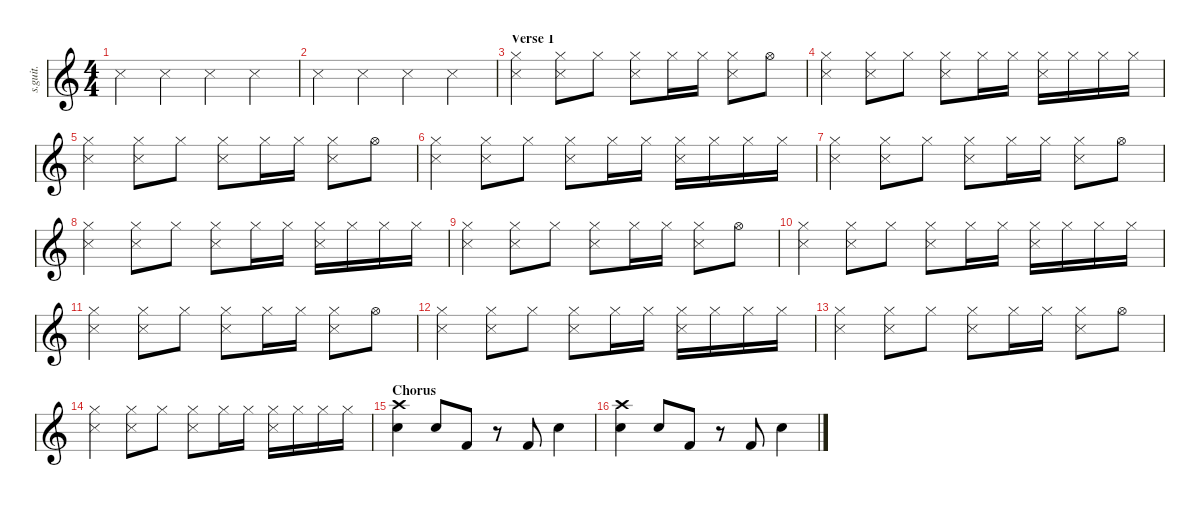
\defaultSystemsLayout 4
\hideDynamics
\bracketExtendMode nobrackets
\track ("Percussion" "s.guit.") {instrument percussion}
\staff {score}
\articulation defaults
\ts (4 4)
\tempo (102 hide)
\clef g2
\ks c "Snare (side stick) 3".4{dy f} "Snare (side stick) 3".4 "Snare (side stick) 3".4 "Snare (side stick) 3".4
|
"Snare (side stick) 3".4 "Snare (side stick) 3".4 "Snare (side stick) 3".4 "Snare (side stick) 3".4 |
\section ("" "Verse 1")
("Snare (side stick) 3" "Hi-Hat (closed)").4 ("Snare (side stick) 3" "Hi-Hat (closed)").8 "Hi-Hat (closed)".8 ("Snare (side stick) 3" "Hi-Hat (closed)").8 "Hi-Hat (closed)".16 "Hi-Hat (closed)".16 ("Snare (side stick) 3" "Hi-Hat (closed)").8 "Hi-Hat (open)".8 |
("Snare (side stick) 3" "Hi-Hat (closed)").4 ("Snare (side stick) 3" "Hi-Hat (closed)").8 "Hi-Hat (closed)".8 ("Snare (side stick) 3" "Hi-Hat (closed)").8 "Hi-Hat (closed)".16 "Hi-Hat (closed)".16 ("Snare (side stick) 3" "Hi-Hat (closed)").16 "Hi-Hat (closed)".16 "Hi-Hat (closed)".16 "Hi-Hat (closed)".16 |
("Snare (side stick) 3" "Hi-Hat (closed)").4 ("Snare (side stick) 3" "Hi-Hat (closed)").8 "Hi-Hat (closed)".8 ("Snare (side stick) 3" "Hi-Hat (closed)").8 "Hi-Hat (closed)".16 "Hi-Hat (closed)".16 ("Snare (side stick) 3" "Hi-Hat (closed)").8 "Hi-Hat (open)".8 |
("Snare (side stick) 3" "Hi-Hat (closed)").4 ("Snare (side stick) 3" "Hi-Hat (closed)").8 "Hi-Hat (closed)".8 ("Snare (side stick) 3" "Hi-Hat (closed)").8 "Hi-Hat (closed)".16 "Hi-Hat (closed)".16 ("Snare (side stick) 3" "Hi-Hat (closed)").16 "Hi-Hat (closed)".16 "Hi-Hat (closed)".16 "Hi-Hat (closed)".16 |
("Snare (side stick) 3" "Hi-Hat (closed)").4 ("Snare (side stick) 3" "Hi-Hat (closed)").8 "Hi-Hat (closed)".8 ("Snare (side stick) 3" "Hi-Hat (closed)").8 "Hi-Hat (closed)".16 "Hi-Hat (closed)".16 ("Snare (side stick) 3" "Hi-Hat (closed)").8 "Hi-Hat (open)".8 |
("Snare (side stick) 3" "Hi-Hat (closed)").4 ("Snare (side stick) 3" "Hi-Hat (closed)").8 "Hi-Hat (closed)".8 ("Snare (side stick) 3" "Hi-Hat (closed)").8 "Hi-Hat (closed)".16 "Hi-Hat (closed)".16 ("Snare (side stick) 3" "Hi-Hat (closed)").16 "Hi-Hat (closed)".16 "Hi-Hat (closed)".16 "Hi-Hat (closed)".16 |
("Snare (side stick) 3" "Hi-Hat (closed)").4 ("Snare (side stick) 3" "Hi-Hat (closed)").8 "Hi-Hat (closed)".8 ("Snare (side stick) 3" "Hi-Hat (closed)").8 "Hi-Hat (closed)".16 "Hi-Hat (closed)".16 ("Snare (side stick) 3" "Hi-Hat (closed)").8 "Hi-Hat (open)".8 |
("Snare (side stick) 3" "Hi-Hat (closed)").4 ("Snare (side stick) 3" "Hi-Hat (closed)").8 "Hi-Hat (closed)".8 ("Snare (side stick) 3" "Hi-Hat (closed)").8 "Hi-Hat (closed)".16 "Hi-Hat (closed)".16 ("Snare (side stick) 3" "Hi-Hat (closed)").16 "Hi-Hat (closed)".16 "Hi-Hat (closed)".16 "Hi-Hat (closed)".16 |
("Snare (side stick) 3" "Hi-Hat (closed)").4 ("Snare (side stick) 3" "Hi-Hat (closed)").8 "Hi-Hat (closed)".8 ("Snare (side stick) 3" "Hi-Hat (closed)").8 "Hi-Hat (closed)".16 "Hi-Hat (closed)".16 ("Snare (side stick) 3" "Hi-Hat (closed)").8 "Hi-Hat (open)".8 |
("Snare (side stick) 3" "Hi-Hat (closed)").4 ("Snare (side stick) 3" "Hi-Hat (closed)").8 "Hi-Hat (closed)".8 ("Snare (side stick) 3" "Hi-Hat (closed)").8 "Hi-Hat (closed)".16 "Hi-Hat (closed)".16 ("Snare (side stick) 3" "Hi-Hat (closed)").16 "Hi-Hat (closed)".16 "Hi-Hat (closed)".16 "Hi-Hat (closed)".16 |
("Snare (side stick) 3" "Hi-Hat (closed)").4 ("Snare (side stick) 3" "Hi-Hat (closed)").8 "Hi-Hat (closed)".8 ("Snare (side stick) 3" "Hi-Hat (closed)").8 "Hi-Hat (closed)".16 "Hi-Hat (closed)".16 ("Snare (side stick) 3" "Hi-Hat (closed)").8 "Hi-Hat (open)".8 |
("Snare (side stick) 3" "Hi-Hat (closed)").4 ("Snare (side stick) 3" "Hi-Hat (closed)").8 "Hi-Hat (closed)".8 ("Snare (side stick) 3" "Hi-Hat (closed)").8 "Hi-Hat (closed)".16 "Hi-Hat (closed)".16 ("Snare (side stick) 3" "Hi-Hat (closed)").16 "Hi-Hat (closed)".16 "Hi-Hat (closed)".16 "Hi-Hat (closed)".16 |
\section ("" "Chorus")
("Crash high (hit)" "Snare (hit) 2").4 "Snare (hit) 2".8 "Kick (hit) 2".8 r.8 "Kick (hit) 2".8 "Snare (hit) 2".4 |
("Crash high (hit)" "Snare (hit) 2").4 "Snare (hit) 2".8 "Kick (hit) 2".8 r.8 "Kick (hit) 2".8 "Snare (hit) 2".4
